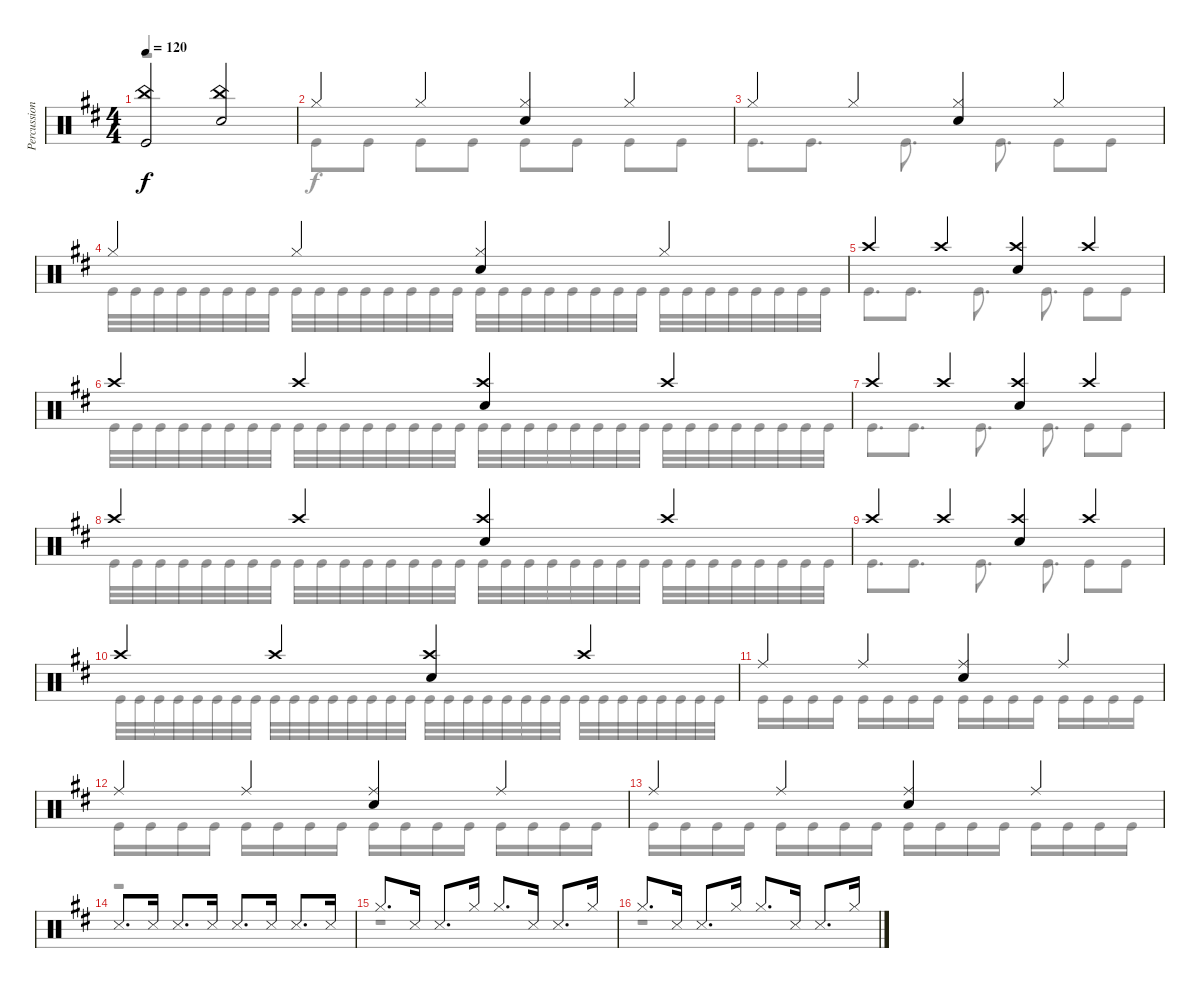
\track ("Percussion" "Percussion") {instrument percussion}
\staff {score}
\articulation defaults
\voice
\ts (4 4)
\tempo 120
\clef neutral
\ks bminor
("China (hit)" "Kick (hit)").2{dy f} ("China (hit)" "Snare (hit) 2").2 |
"Hi-Hat (closed)".4 "Hi-Hat (closed)".4 ("Hi-Hat (closed)" "Snare (hit) 2").4 "Hi-Hat (closed)".4 |
"Hi-Hat (closed)".4 "Hi-Hat (closed)".4 ("Hi-Hat (closed)" "Snare (hit) 2").4 "Hi-Hat (closed)".4 |
"Hi-Hat (closed)".4 "Hi-Hat (closed)".4 ("Hi-Hat (closed)" "Snare (hit) 2").4 "Hi-Hat (closed)".4 |
"Crash high (hit)".4 "Crash high (hit)".4 ("Crash high (hit)" "Snare (hit) 2").4 "Crash high (hit)".4 |
"Crash high (hit)".4 "Crash high (hit)".4 ("Crash high (hit)" "Snare (hit) 2").4 "Crash high (hit)".4 |
"Crash high (hit)".4 "Crash high (hit)".4 ("Crash high (hit)" "Snare (hit) 2").4 "Crash high (hit)".4 |
"Crash high (hit)".4 "Crash high (hit)".4 ("Crash high (hit)" "Snare (hit) 2").4 "Crash high (hit)".4 |
"Crash high (hit)".4 "Crash high (hit)".4 ("Crash high (hit)" "Snare (hit) 2").4 "Crash high (hit)".4 |
"Crash high (hit)".4 "Crash high (hit)".4 ("Crash high (hit)" "Snare (hit) 2").4 "Crash high (hit)".4 |
"Ride (middle)".4 "Ride (middle)".4 ("Ride (middle)" "Snare (hit) 2").4 "Ride (middle)".4 |
"Ride (middle)".4 "Ride (middle)".4 ("Ride (middle)" "Snare (hit) 2").4 "Ride (middle)".4 |
"Ride (middle)".4 "Ride (middle)".4 ("Ride (middle)" "Snare (hit) 2").4 "Ride (middle)".4 |
"Snare (side stick) 3".8{d} "Snare (side stick) 3".16 "Snare (side stick) 3".8{d} "Snare (side stick) 3".16 "Snare (side stick) 3".8{d} "Snare (side stick) 3".16 "Snare (side stick) 3".8{d} "Snare (side stick) 3".16 |
"Hi-Hat (closed)".8{d} "Snare (side stick) 3".16 "Snare (side stick) 3".8{d} "Hi-Hat (closed)".16 "Hi-Hat (closed)".8{d} "Snare (side stick) 3".16 "Snare (side stick) 3".8{d} "Hi-Hat (closed)".16 |
"Hi-Hat (closed)".8{d} "Snare (side stick) 3".16 "Snare (side stick) 3".8{d} "Hi-Hat (closed)".16 "Hi-Hat (closed)".8{d} "Snare (side stick) 3".16 "Snare (side stick) 3".8{d} "Hi-Hat (closed)".16
\voice
\clef neutral
\ottava regular
\simile none
\ks bminor
r.1{dy f} |
"Kick (hit)".8 "Kick (hit)".8 "Kick (hit)".8 "Kick (hit)".8 "Kick (hit)".8 "Kick (hit)".8 "Kick (hit)".8 "Kick (hit)".8 |
"Kick (hit)".8{d} "Kick (hit)".8{d} "Kick (hit)".8{d} "Kick (hit)".8{d} "Kick (hit)".8 "Kick (hit)".8 |
"Kick (hit)".32 "Kick (hit)".32 "Kick (hit)".32 "Kick (hit)".32 "Kick (hit)".32 "Kick (hit)".32 "Kick (hit)".32 "Kick (hit)".32 "Kick (hit)".32 "Kick (hit)".32 "Kick (hit)".32 "Kick (hit)".32 "Kick (hit)".32 "Kick (hit)".32 "Kick (hit)".32 "Kick (hit)".32 "Kick (hit)".32 "Kick (hit)".32 "Kick (hit)".32 "Kick (hit)".32 "Kick (hit)".32 "Kick (hit)".32 "Kick (hit)".32 "Kick (hit)".32 "Kick (hit)".32 "Kick (hit)".32 "Kick (hit)".32 "Kick (hit)".32 "Kick (hit)".32 "Kick (hit)".32 "Kick (hit)".32 "Kick (hit)".32 |
"Kick (hit)".8{d} "Kick (hit)".8{d} "Kick (hit)".8{d} "Kick (hit)".8{d} "Kick (hit)".8 "Kick (hit)".8 |
"Kick (hit)".32 "Kick (hit)".32 "Kick (hit)".32 "Kick (hit)".32 "Kick (hit)".32 "Kick (hit)".32 "Kick (hit)".32 "Kick (hit)".32 "Kick (hit)".32 "Kick (hit)".32 "Kick (hit)".32 "Kick (hit)".32 "Kick (hit)".32 "Kick (hit)".32 "Kick (hit)".32 "Kick (hit)".32 "Kick (hit)".32 "Kick (hit)".32 "Kick (hit)".32 "Kick (hit)".32 "Kick (hit)".32 "Kick (hit)".32 "Kick (hit)".32 "Kick (hit)".32 "Kick (hit)".32 "Kick (hit)".32 "Kick (hit)".32 "Kick (hit)".32 "Kick (hit)".32 "Kick (hit)".32 "Kick (hit)".32 "Kick (hit)".32 |
"Kick (hit)".8{d} "Kick (hit)".8{d} "Kick (hit)".8{d} "Kick (hit)".8{d} "Kick (hit)".8 "Kick (hit)".8 |
"Kick (hit)".32 "Kick (hit)".32 "Kick (hit)".32 "Kick (hit)".32 "Kick (hit)".32 "Kick (hit)".32 "Kick (hit)".32 "Kick (hit)".32 "Kick (hit)".32 "Kick (hit)".32 "Kick (hit)".32 "Kick (hit)".32 "Kick (hit)".32 "Kick (hit)".32 "Kick (hit)".32 "Kick (hit)".32 "Kick (hit)".32 "Kick (hit)".32 "Kick (hit)".32 "Kick (hit)".32 "Kick (hit)".32 "Kick (hit)".32 "Kick (hit)".32 "Kick (hit)".32 "Kick (hit)".32 "Kick (hit)".32 "Kick (hit)".32 "Kick (hit)".32 "Kick (hit)".32 "Kick (hit)".32 "Kick (hit)".32 "Kick (hit)".32 |
"Kick (hit)".8{d} "Kick (hit)".8{d} "Kick (hit)".8{d} "Kick (hit)".8{d} "Kick (hit)".8 "Kick (hit)".8 |
"Kick (hit)".32 "Kick (hit)".32 "Kick (hit)".32 "Kick (hit)".32 "Kick (hit)".32 "Kick (hit)".32 "Kick (hit)".32 "Kick (hit)".32 "Kick (hit)".32 "Kick (hit)".32 "Kick (hit)".32 "Kick (hit)".32 "Kick (hit)".32 "Kick (hit)".32 "Kick (hit)".32 "Kick (hit)".32 "Kick (hit)".32 "Kick (hit)".32 "Kick (hit)".32 "Kick (hit)".32 "Kick (hit)".32 "Kick (hit)".32 "Kick (hit)".32 "Kick (hit)".32 "Kick (hit)".32 "Kick (hit)".32 "Kick (hit)".32 "Kick (hit)".32 "Kick (hit)".32 "Kick (hit)".32 "Kick (hit)".32 "Kick (hit)".32 |
"Kick (hit)".16 "Kick (hit)".16 "Kick (hit)".16 "Kick (hit)".16 "Kick (hit)".16 "Kick (hit)".16 "Kick (hit)".16 "Kick (hit)".16 "Kick (hit)".16 "Kick (hit)".16 "Kick (hit)".16 "Kick (hit)".16 "Kick (hit)".16 "Kick (hit)".16 "Kick (hit)".16 "Kick (hit)".16 |
"Kick (hit)".16 "Kick (hit)".16 "Kick (hit)".16 "Kick (hit)".16 "Kick (hit)".16 "Kick (hit)".16 "Kick (hit)".16 "Kick (hit)".16 "Kick (hit)".16 "Kick (hit)".16 "Kick (hit)".16 "Kick (hit)".16 "Kick (hit)".16 "Kick (hit)".16 "Kick (hit)".16 "Kick (hit)".16 |
"Kick (hit)".16 "Kick (hit)".16 "Kick (hit)".16 "Kick (hit)".16 "Kick (hit)".16 "Kick (hit)".16 "Kick (hit)".16 "Kick (hit)".16 "Kick (hit)".16 "Kick (hit)".16 "Kick (hit)".16 "Kick (hit)".16 "Kick (hit)".16 "Kick (hit)".16 "Kick (hit)".16 "Kick (hit)".16 |
r.1 |
r.1 |
r.1
